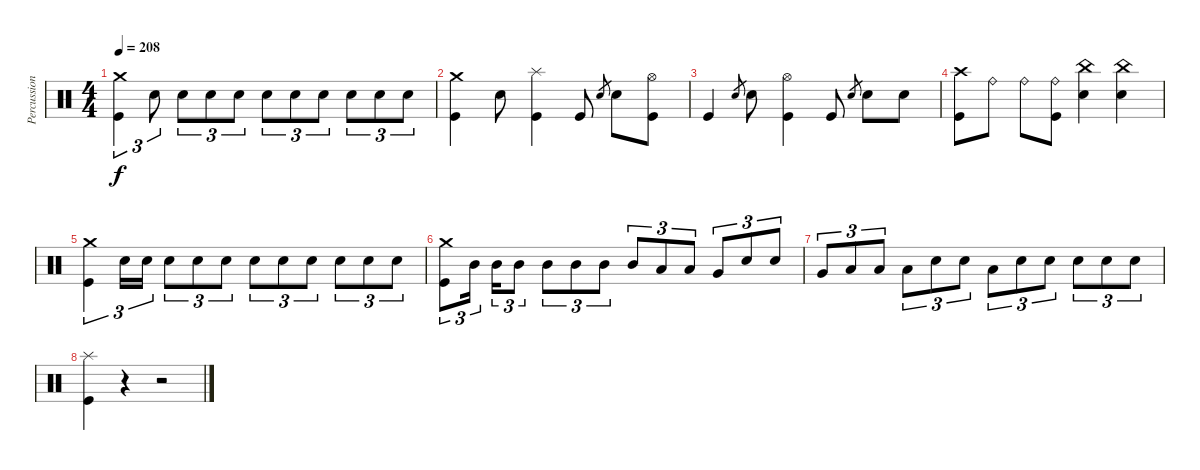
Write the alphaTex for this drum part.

\track ("Percussions" "Percussion") {instrument percussion}
\staff {score}
\articulation defaults
\ts (4 4)
\tempo 208
\clef neutral
\ks c
("Kick (hit)" "Crash medium (hit)").4{tu (3 2) dy f} "Electric Snare (hit)".8{tu (3 2)} "Electric Snare (hit)".8{tu (3 2)} "Electric Snare (hit)".8{tu (3 2)} "Electric Snare (hit)".8{tu (3 2)} "Electric Snare (hit)".8{tu (3 2)} "Electric Snare (hit)".8{tu (3 2)} "Electric Snare (hit)".8{tu (3 2)} "Electric Snare (hit)".8{tu (3 2)} "Electric Snare (hit)".8{tu (3 2)} "Electric Snare (hit)".8{tu (3 2)} |
("Kick (hit)" "Crash medium (hit)").4 "Electric Snare (hit)".8 ("Kick (hit)" "Splash (hit)").4 "Kick (hit)".8 "Electric Snare (hit)".8{gr} "Electric Snare (hit)".8 ("Kick (hit)" "Hi-Hat (open)").8 |
"Kick (hit)".4 "Electric Snare (hit)".8{gr} "Electric Snare (hit)".8 ("Kick (hit)" "Hi-Hat (open)").4 "Kick (hit)".8 "Electric Snare (hit)".8{gr} "Electric Snare (hit)".8 "Electric Snare (hit)".8 |
("Kick (hit)" "Crash high (hit)").8 "Ride (bell)".8 "Ride (bell)".8 ("Kick (hit)" "Ride (bell)").8 ("Electric Snare (hit)" "China (hit)").4 ("Electric Snare (hit)" "China (hit)").4 |
("Kick (hit)" "Crash medium (hit)").4{tu (3 2)} "Electric Snare (hit)".16{tu (3 2)} "Electric Snare (hit)".16{tu (3 2)} "Electric Snare (hit)".8{tu (3 2)} "Electric Snare (hit)".8{tu (3 2)} "Electric Snare (hit)".8{tu (3 2)} "Electric Snare (hit)".8{tu (3 2)} "Electric Snare (hit)".8{tu (3 2)} "Electric Snare (hit)".8{tu (3 2)} "Electric Snare (hit)".8{tu (3 2)} "Electric Snare (hit)".8{tu (3 2)} "Electric Snare (hit)".8{tu (3 2)} |
("Kick (hit)" "Crash medium (hit)").8{tu (3 2)} "Mid Tom (hit)".16{tu (3 2)} "Mid Tom (hit)".16{tu (3 2)} "Mid Tom (hit)".8{tu (3 2)} "Mid Tom (hit)".8{tu (3 2)} "Mid Tom (hit)".8{tu (3 2)} "Mid Tom (hit)".8{tu (3 2)} "Mid Tom (hit)".8{tu (3 2)} "Low Tom (hit)".8{tu (3 2)} "Low Tom (hit)".8{tu (3 2)} "Very Low Tom (hit)".8{tu (3 2)} "Electric Snare (hit)".8{tu (3 2)} "Electric Snare (hit)".8{tu (3 2)} |
"Very Low Tom (hit)".8{tu (3 2)} "Low Floor Tom (hit)".8{tu (3 2)} "Low Floor Tom (hit)".8{tu (3 2)} "Low Floor Tom (hit)".8{tu (3 2)} "Electric Snare (hit)".8{tu (3 2)} "Electric Snare (hit)".8{tu (3 2)} "Low Floor Tom (hit)".8{tu (3 2)} "Electric Snare (hit)".8{tu (3 2)} "Electric Snare (hit)".8{tu (3 2)} "Electric Snare (hit)".8{tu (3 2)} "Electric Snare (hit)".8{tu (3 2)} "Electric Snare (hit)".8{tu (3 2)} |
("Kick (hit)" "Splash (hit)").4 r.4 r.2
